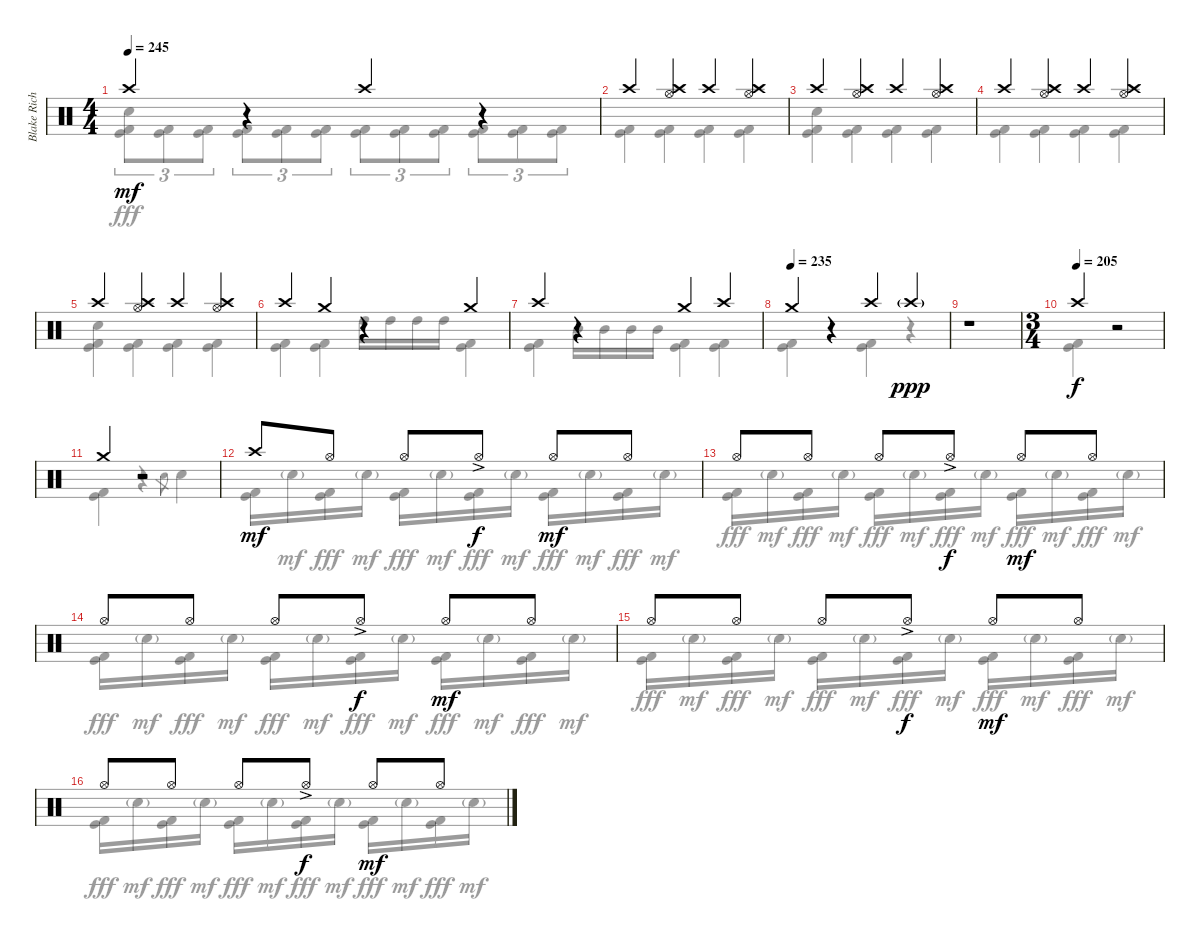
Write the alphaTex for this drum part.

\track ("Blake Richardson Drums" "Blake Rich") {instrument percussion}
\staff {score}
\articulation defaults
\voice
\ts (4 4)
\tempo 245
\clef neutral
\ks c "Crash high (hit)".4{dy mf}
r.4 "Crash high (hit)".4 r.4 |
"Crash high (hit)".4 ("Crash high (hit)" "Hi-Hat (open)").4 "Crash high (hit)".4 ("Crash high (hit)" "Hi-Hat (open)").4 |
"Crash high (hit)".4 ("Crash high (hit)" "Hi-Hat (open)").4 "Crash high (hit)".4 ("Crash high (hit)" "Hi-Hat (open)").4 |
"Crash high (hit)".4 ("Crash high (hit)" "Hi-Hat (open)").4 "Crash high (hit)".4 ("Crash high (hit)" "Hi-Hat (open)").4 |
"Crash high (hit)".4 ("Crash high (hit)" "Hi-Hat (open)").4 "Crash high (hit)".4 ("Crash high (hit)" "Hi-Hat (open)").4 |
"Crash high (hit)".4 "Crash medium (hit)".4 r.4 "Crash medium (hit)".4 |
"Crash high (hit)".4 r.4 "Crash medium (hit)".4 "Crash high (hit)".4 |
\tempo (235)
"Crash medium (hit)".4 r.4 "Crash high (hit)".4 "Crash high (hit)"{g}.4{dy ppp} |
r.1 |
\ts (3 4)
\tempo (205)
"Crash high (hit)".4{dy f} r.2 |
"Crash medium (hit)".4 r.2 |
"Crash high (hit)".8{dy mf} "Hi-Hat (open)".8 "Hi-Hat (open)".8 "Hi-Hat (open)"{ac}.8{dy f} "Hi-Hat (open)".8{dy mf} "Hi-Hat (open)".8 |
"Hi-Hat (open)".8 "Hi-Hat (open)".8 "Hi-Hat (open)".8 "Hi-Hat (open)"{ac}.8{dy f} "Hi-Hat (open)".8{dy mf} "Hi-Hat (open)".8 |
"Hi-Hat (open)".8 "Hi-Hat (open)".8 "Hi-Hat (open)".8 "Hi-Hat (open)"{ac}.8{dy f} "Hi-Hat (open)".8{dy mf} "Hi-Hat (open)".8 |
"Hi-Hat (open)".8 "Hi-Hat (open)".8 "Hi-Hat (open)".8 "Hi-Hat (open)"{ac}.8{dy f} "Hi-Hat (open)".8{dy mf} "Hi-Hat (open)".8 |
"Hi-Hat (open)".8 "Hi-Hat (open)".8 "Hi-Hat (open)".8 "Hi-Hat (open)"{ac}.8{dy f} "Hi-Hat (open)".8{dy mf} "Hi-Hat (open)".8
\voice
\clef neutral
\ottava regular
\simile none
\ks c
("Electric Snare (hit)" "Kick (hit)" "Kick (hit) 2").8{tu (3 2) dy fff} ("Kick (hit)" "Kick (hit) 2").8{tu (3 2)} ("Kick (hit)" "Kick (hit) 2").8{tu (3 2)} ("Kick (hit)" "Kick (hit) 2").8{tu (3 2)} ("Kick (hit)" "Kick (hit) 2").8{tu (3 2)} ("Kick (hit)" "Kick (hit) 2").8{tu (3 2)} ("Kick (hit)" "Kick (hit) 2").8{tu (3 2)} ("Kick (hit)" "Kick (hit) 2").8{tu (3 2)} ("Kick (hit)" "Kick (hit) 2").8{tu (3 2)} ("Kick (hit)" "Kick (hit) 2").8{tu (3 2)} ("Kick (hit)" "Kick (hit) 2").8{tu (3 2)} ("Kick (hit)" "Kick (hit) 2").8{tu (3 2)} |
("Kick (hit)" "Kick (hit) 2").4 ("Kick (hit)" "Kick (hit) 2").4 ("Kick (hit)" "Kick (hit) 2").4 ("Kick (hit)" "Kick (hit) 2").4 |
("Electric Snare (hit)" "Kick (hit)" "Kick (hit) 2").4 ("Kick (hit)" "Kick (hit) 2").4 ("Kick (hit)" "Kick (hit) 2").4 ("Kick (hit)" "Kick (hit) 2").4 |
("Kick (hit)" "Kick (hit) 2").4 ("Kick (hit)" "Kick (hit) 2").4 ("Kick (hit)" "Kick (hit) 2").4 ("Kick (hit)" "Kick (hit) 2").4 |
("Electric Snare (hit)" "Kick (hit)" "Kick (hit) 2").4 ("Kick (hit)" "Kick (hit) 2").4 ("Kick (hit)" "Kick (hit) 2").4 ("Kick (hit)" "Kick (hit) 2").4 |
("Kick (hit)" "Kick (hit) 2").4 ("Kick (hit)" "Kick (hit) 2").4 "High Tom (hit)".16 "High Tom (hit)".16 "High Tom (hit)".16 "High Tom (hit)".16 ("Kick (hit)" "Kick (hit) 2").4 |
("Kick (hit)" "Kick (hit) 2").4 "Mid Tom (hit)".16 "Mid Tom (hit)".16 "Mid Tom (hit)".16 "Mid Tom (hit)".16 ("Kick (hit)" "Kick (hit) 2").4 ("Kick (hit)" "Kick (hit) 2").4 |
("Kick (hit)" "Kick (hit) 2").4 r.4 ("Kick (hit)" "Kick (hit) 2").4 r.4 |
r.1 |
("Kick (hit)" "Kick (hit) 2").4 r.2 |
("Kick (hit)" "Kick (hit) 2").4 r.4 "Electric Snare (hit)".8{gr} "Electric Snare (hit)".4 |
("Kick (hit)" "Kick (hit) 2").16 "Electric Snare (hit)"{g}.16{dy mf} ("Kick (hit)" "Kick (hit) 2").16{dy fff} "Electric Snare (hit)"{g}.16{dy mf} ("Kick (hit)" "Kick (hit) 2").16{dy fff} "Electric Snare (hit)"{g}.16{dy mf} ("Kick (hit)" "Kick (hit) 2").16{dy fff} "Electric Snare (hit)"{g}.16{dy mf} ("Kick (hit)" "Kick (hit) 2").16{dy fff} "Electric Snare (hit)"{g}.16{dy mf} ("Kick (hit)" "Kick (hit) 2").16{dy fff} "Electric Snare (hit)"{g}.16{dy mf} |
("Kick (hit)" "Kick (hit) 2").16{dy fff} "Electric Snare (hit)"{g}.16{dy mf} ("Kick (hit)" "Kick (hit) 2").16{dy fff} "Electric Snare (hit)"{g}.16{dy mf} ("Kick (hit)" "Kick (hit) 2").16{dy fff} "Electric Snare (hit)"{g}.16{dy mf} ("Kick (hit)" "Kick (hit) 2").16{dy fff} "Electric Snare (hit)"{g}.16{dy mf} ("Kick (hit)" "Kick (hit) 2").16{dy fff} "Electric Snare (hit)"{g}.16{dy mf} ("Kick (hit)" "Kick (hit) 2").16{dy fff} "Electric Snare (hit)"{g}.16{dy mf} |
("Kick (hit)" "Kick (hit) 2").16{dy fff} "Electric Snare (hit)"{g}.16{dy mf} ("Kick (hit)" "Kick (hit) 2").16{dy fff} "Electric Snare (hit)"{g}.16{dy mf} ("Kick (hit)" "Kick (hit) 2").16{dy fff} "Electric Snare (hit)"{g}.16{dy mf} ("Kick (hit)" "Kick (hit) 2").16{dy fff} "Electric Snare (hit)"{g}.16{dy mf} ("Kick (hit)" "Kick (hit) 2").16{dy fff} "Electric Snare (hit)"{g}.16{dy mf} ("Kick (hit)" "Kick (hit) 2").16{dy fff} "Electric Snare (hit)"{g}.16{dy mf} |
("Kick (hit)" "Kick (hit) 2").16{dy fff} "Electric Snare (hit)"{g}.16{dy mf} ("Kick (hit)" "Kick (hit) 2").16{dy fff} "Electric Snare (hit)"{g}.16{dy mf} ("Kick (hit)" "Kick (hit) 2").16{dy fff} "Electric Snare (hit)"{g}.16{dy mf} ("Kick (hit)" "Kick (hit) 2").16{dy fff} "Electric Snare (hit)"{g}.16{dy mf} ("Kick (hit)" "Kick (hit) 2").16{dy fff} "Electric Snare (hit)"{g}.16{dy mf} ("Kick (hit)" "Kick (hit) 2").16{dy fff} "Electric Snare (hit)"{g}.16{dy mf} |
("Kick (hit)" "Kick (hit) 2").16{dy fff} "Electric Snare (hit)"{g}.16{dy mf} ("Kick (hit)" "Kick (hit) 2").16{dy fff} "Electric Snare (hit)"{g}.16{dy mf} ("Kick (hit)" "Kick (hit) 2").16{dy fff} "Electric Snare (hit)"{g}.16{dy mf} ("Kick (hit)" "Kick (hit) 2").16{dy fff} "Electric Snare (hit)"{g}.16{dy mf} ("Kick (hit)" "Kick (hit) 2").16{dy fff} "Electric Snare (hit)"{g}.16{dy mf} ("Kick (hit)" "Kick (hit) 2").16{dy fff} "Electric Snare (hit)"{g}.16{dy mf}
